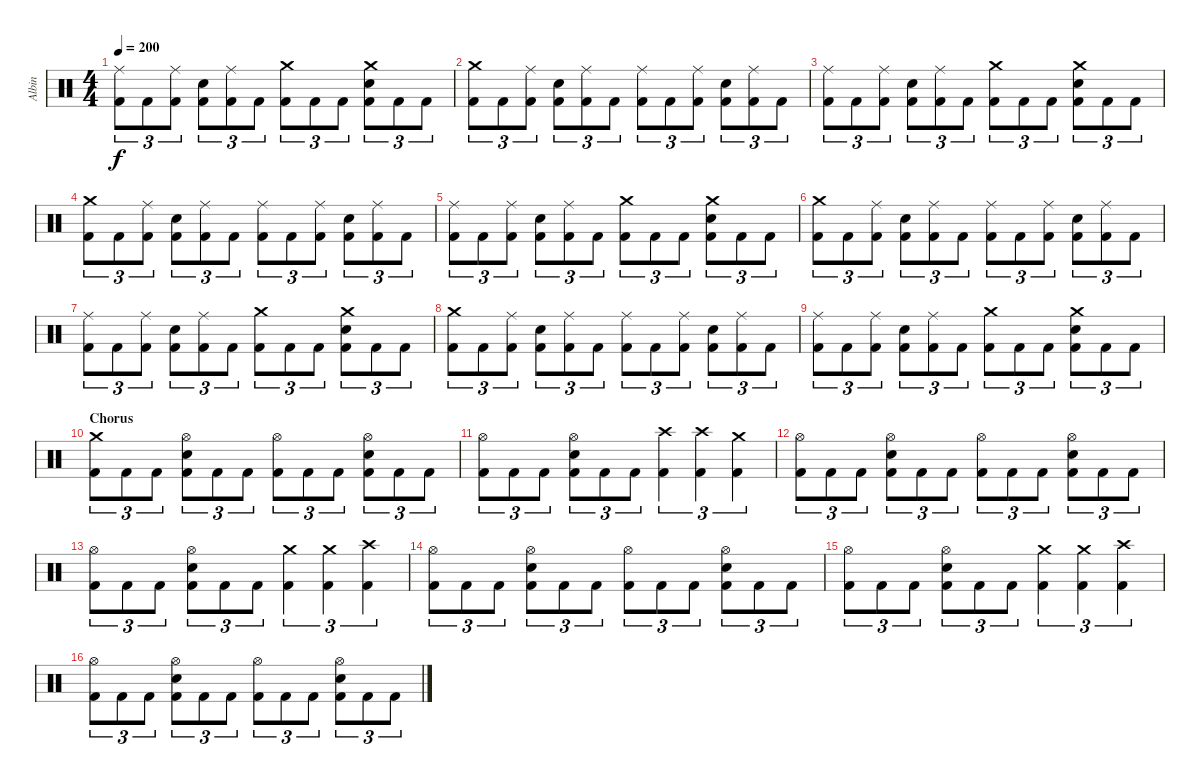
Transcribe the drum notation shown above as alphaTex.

\track ("Albin" "Albin") {instrument percussion}
\staff {score}
\articulation defaults
\ts (4 4)
\tempo 200
\clef neutral
\ks c
("Ride (middle)" "Kick (hit) 2").8{tu (3 2) dy f} "Kick (hit) 2".8{tu (3 2)} ("Ride (middle)" "Kick (hit) 2").8{tu (3 2)} ("Electric Snare (hit)" "Kick (hit) 2").8{tu (3 2)} ("Ride (middle)" "Kick (hit) 2").8{tu (3 2)} "Kick (hit) 2".8{tu (3 2)} ("Crash medium (hit)" "Kick (hit) 2").8{tu (3 2)} "Kick (hit) 2".8{tu (3 2)} "Kick (hit) 2".8{tu (3 2)} ("Crash medium (hit)" "Electric Snare (hit)" "Kick (hit) 2").8{tu (3 2)} "Kick (hit) 2".8{tu (3 2)} "Kick (hit) 2".8{tu (3 2)} |
("Crash medium (hit)" "Kick (hit) 2").8{tu (3 2)} "Kick (hit) 2".8{tu (3 2)} ("Ride (middle)" "Kick (hit) 2").8{tu (3 2)} ("Electric Snare (hit)" "Kick (hit) 2").8{tu (3 2)} ("Ride (middle)" "Kick (hit) 2").8{tu (3 2)} "Kick (hit) 2".8{tu (3 2)} ("Ride (middle)" "Kick (hit) 2").8{tu (3 2)} "Kick (hit) 2".8{tu (3 2)} ("Ride (middle)" "Kick (hit) 2").8{tu (3 2)} ("Electric Snare (hit)" "Kick (hit) 2").8{tu (3 2)} ("Ride (middle)" "Kick (hit) 2").8{tu (3 2)} "Kick (hit) 2".8{tu (3 2)} |
("Ride (middle)" "Kick (hit) 2").8{tu (3 2)} "Kick (hit) 2".8{tu (3 2)} ("Ride (middle)" "Kick (hit) 2").8{tu (3 2)} ("Electric Snare (hit)" "Kick (hit) 2").8{tu (3 2)} ("Ride (middle)" "Kick (hit) 2").8{tu (3 2)} "Kick (hit) 2".8{tu (3 2)} ("Crash medium (hit)" "Kick (hit) 2").8{tu (3 2)} "Kick (hit) 2".8{tu (3 2)} "Kick (hit) 2".8{tu (3 2)} ("Crash medium (hit)" "Electric Snare (hit)" "Kick (hit) 2").8{tu (3 2)} "Kick (hit) 2".8{tu (3 2)} "Kick (hit) 2".8{tu (3 2)} |
("Crash medium (hit)" "Kick (hit) 2").8{tu (3 2)} "Kick (hit) 2".8{tu (3 2)} ("Ride (middle)" "Kick (hit) 2").8{tu (3 2)} ("Electric Snare (hit)" "Kick (hit) 2").8{tu (3 2)} ("Ride (middle)" "Kick (hit) 2").8{tu (3 2)} "Kick (hit) 2".8{tu (3 2)} ("Ride (middle)" "Kick (hit) 2").8{tu (3 2)} "Kick (hit) 2".8{tu (3 2)} ("Ride (middle)" "Kick (hit) 2").8{tu (3 2)} ("Electric Snare (hit)" "Kick (hit) 2").8{tu (3 2)} ("Ride (middle)" "Kick (hit) 2").8{tu (3 2)} "Kick (hit) 2".8{tu (3 2)} |
("Ride (middle)" "Kick (hit) 2").8{tu (3 2)} "Kick (hit) 2".8{tu (3 2)} ("Ride (middle)" "Kick (hit) 2").8{tu (3 2)} ("Electric Snare (hit)" "Kick (hit) 2").8{tu (3 2)} ("Ride (middle)" "Kick (hit) 2").8{tu (3 2)} "Kick (hit) 2".8{tu (3 2)} ("Crash medium (hit)" "Kick (hit) 2").8{tu (3 2)} "Kick (hit) 2".8{tu (3 2)} "Kick (hit) 2".8{tu (3 2)} ("Crash medium (hit)" "Electric Snare (hit)" "Kick (hit) 2").8{tu (3 2)} "Kick (hit) 2".8{tu (3 2)} "Kick (hit) 2".8{tu (3 2)} |
("Crash medium (hit)" "Kick (hit) 2").8{tu (3 2)} "Kick (hit) 2".8{tu (3 2)} ("Ride (middle)" "Kick (hit) 2").8{tu (3 2)} ("Electric Snare (hit)" "Kick (hit) 2").8{tu (3 2)} ("Ride (middle)" "Kick (hit) 2").8{tu (3 2)} "Kick (hit) 2".8{tu (3 2)} ("Ride (middle)" "Kick (hit) 2").8{tu (3 2)} "Kick (hit) 2".8{tu (3 2)} ("Ride (middle)" "Kick (hit) 2").8{tu (3 2)} ("Electric Snare (hit)" "Kick (hit) 2").8{tu (3 2)} ("Ride (middle)" "Kick (hit) 2").8{tu (3 2)} "Kick (hit) 2".8{tu (3 2)} |
("Ride (middle)" "Kick (hit) 2").8{tu (3 2)} "Kick (hit) 2".8{tu (3 2)} ("Ride (middle)" "Kick (hit) 2").8{tu (3 2)} ("Electric Snare (hit)" "Kick (hit) 2").8{tu (3 2)} ("Ride (middle)" "Kick (hit) 2").8{tu (3 2)} "Kick (hit) 2".8{tu (3 2)} ("Crash medium (hit)" "Kick (hit) 2").8{tu (3 2)} "Kick (hit) 2".8{tu (3 2)} "Kick (hit) 2".8{tu (3 2)} ("Crash medium (hit)" "Electric Snare (hit)" "Kick (hit) 2").8{tu (3 2)} "Kick (hit) 2".8{tu (3 2)} "Kick (hit) 2".8{tu (3 2)} |
("Crash medium (hit)" "Kick (hit) 2").8{tu (3 2)} "Kick (hit) 2".8{tu (3 2)} ("Ride (middle)" "Kick (hit) 2").8{tu (3 2)} ("Electric Snare (hit)" "Kick (hit) 2").8{tu (3 2)} ("Ride (middle)" "Kick (hit) 2").8{tu (3 2)} "Kick (hit) 2".8{tu (3 2)} ("Ride (middle)" "Kick (hit) 2").8{tu (3 2)} "Kick (hit) 2".8{tu (3 2)} ("Ride (middle)" "Kick (hit) 2").8{tu (3 2)} ("Electric Snare (hit)" "Kick (hit) 2").8{tu (3 2)} ("Ride (middle)" "Kick (hit) 2").8{tu (3 2)} "Kick (hit) 2".8{tu (3 2)} |
("Ride (middle)" "Kick (hit) 2").8{tu (3 2)} "Kick (hit) 2".8{tu (3 2)} ("Ride (middle)" "Kick (hit) 2").8{tu (3 2)} ("Electric Snare (hit)" "Kick (hit) 2").8{tu (3 2)} ("Ride (middle)" "Kick (hit) 2").8{tu (3 2)} "Kick (hit) 2".8{tu (3 2)} ("Crash medium (hit)" "Kick (hit) 2").8{tu (3 2)} "Kick (hit) 2".8{tu (3 2)} "Kick (hit) 2".8{tu (3 2)} ("Crash medium (hit)" "Electric Snare (hit)" "Kick (hit) 2").8{tu (3 2)} "Kick (hit) 2".8{tu (3 2)} "Kick (hit) 2".8{tu (3 2)} |
\section ("" "Chorus")
("Crash medium (hit)" "Kick (hit) 2").8{tu (3 2)} "Kick (hit) 2".8{tu (3 2)} "Kick (hit) 2".8{tu (3 2)} ("Hi-Hat (open)" "Electric Snare (hit)" "Kick (hit) 2").8{tu (3 2)} "Kick (hit) 2".8{tu (3 2)} "Kick (hit) 2".8{tu (3 2)} ("Hi-Hat (open)" "Kick (hit) 2").8{tu (3 2)} "Kick (hit) 2".8{tu (3 2)} "Kick (hit) 2".8{tu (3 2)} ("Hi-Hat (open)" "Electric Snare (hit)" "Kick (hit) 2").8{tu (3 2)} "Kick (hit) 2".8{tu (3 2)} "Kick (hit) 2".8{tu (3 2)} |
("Hi-Hat (open)" "Kick (hit) 2").8{tu (3 2)} "Kick (hit) 2".8{tu (3 2)} "Kick (hit) 2".8{tu (3 2)} ("Hi-Hat (open)" "Electric Snare (hit)" "Kick (hit) 2").8{tu (3 2)} "Kick (hit) 2".8{tu (3 2)} "Kick (hit) 2".8{tu (3 2)} ("Crash high (hit)" "Kick (hit) 2").4{tu (3 2)} ("Crash high (hit)" "Kick (hit) 2").4{tu (3 2)} ("Crash medium (hit)" "Kick (hit) 2").4{tu (3 2)} |
("Hi-Hat (open)" "Kick (hit) 2").8{tu (3 2)} "Kick (hit) 2".8{tu (3 2)} "Kick (hit) 2".8{tu (3 2)} ("Hi-Hat (open)" "Electric Snare (hit)" "Kick (hit) 2").8{tu (3 2)} "Kick (hit) 2".8{tu (3 2)} "Kick (hit) 2".8{tu (3 2)} ("Hi-Hat (open)" "Kick (hit) 2").8{tu (3 2)} "Kick (hit) 2".8{tu (3 2)} "Kick (hit) 2".8{tu (3 2)} ("Hi-Hat (open)" "Electric Snare (hit)" "Kick (hit) 2").8{tu (3 2)} "Kick (hit) 2".8{tu (3 2)} "Kick (hit) 2".8{tu (3 2)} |
("Hi-Hat (open)" "Kick (hit) 2").8{tu (3 2)} "Kick (hit) 2".8{tu (3 2)} "Kick (hit) 2".8{tu (3 2)} ("Hi-Hat (open)" "Electric Snare (hit)" "Kick (hit) 2").8{tu (3 2)} "Kick (hit) 2".8{tu (3 2)} "Kick (hit) 2".8{tu (3 2)} ("Crash medium (hit)" "Kick (hit) 2").4{tu (3 2)} ("Crash medium (hit)" "Kick (hit) 2").4{tu (3 2)} ("Crash high (hit)" "Kick (hit) 2").4{tu (3 2)} |
("Hi-Hat (open)" "Kick (hit) 2").8{tu (3 2)} "Kick (hit) 2".8{tu (3 2)} "Kick (hit) 2".8{tu (3 2)} ("Hi-Hat (open)" "Electric Snare (hit)" "Kick (hit) 2").8{tu (3 2)} "Kick (hit) 2".8{tu (3 2)} "Kick (hit) 2".8{tu (3 2)} ("Hi-Hat (open)" "Kick (hit) 2").8{tu (3 2)} "Kick (hit) 2".8{tu (3 2)} "Kick (hit) 2".8{tu (3 2)} ("Hi-Hat (open)" "Electric Snare (hit)" "Kick (hit) 2").8{tu (3 2)} "Kick (hit) 2".8{tu (3 2)} "Kick (hit) 2".8{tu (3 2)} |
("Hi-Hat (open)" "Kick (hit) 2").8{tu (3 2)} "Kick (hit) 2".8{tu (3 2)} "Kick (hit) 2".8{tu (3 2)} ("Hi-Hat (open)" "Electric Snare (hit)" "Kick (hit) 2").8{tu (3 2)} "Kick (hit) 2".8{tu (3 2)} "Kick (hit) 2".8{tu (3 2)} ("Crash medium (hit)" "Kick (hit) 2").4{tu (3 2)} ("Crash medium (hit)" "Kick (hit) 2").4{tu (3 2)} ("Crash high (hit)" "Kick (hit) 2").4{tu (3 2)} |
("Hi-Hat (open)" "Kick (hit) 2").8{tu (3 2)} "Kick (hit) 2".8{tu (3 2)} "Kick (hit) 2".8{tu (3 2)} ("Hi-Hat (open)" "Electric Snare (hit)" "Kick (hit) 2").8{tu (3 2)} "Kick (hit) 2".8{tu (3 2)} "Kick (hit) 2".8{tu (3 2)} ("Hi-Hat (open)" "Kick (hit) 2").8{tu (3 2)} "Kick (hit) 2".8{tu (3 2)} "Kick (hit) 2".8{tu (3 2)} ("Hi-Hat (open)" "Electric Snare (hit)" "Kick (hit) 2").8{tu (3 2)} "Kick (hit) 2".8{tu (3 2)} "Kick (hit) 2".8{tu (3 2)}
